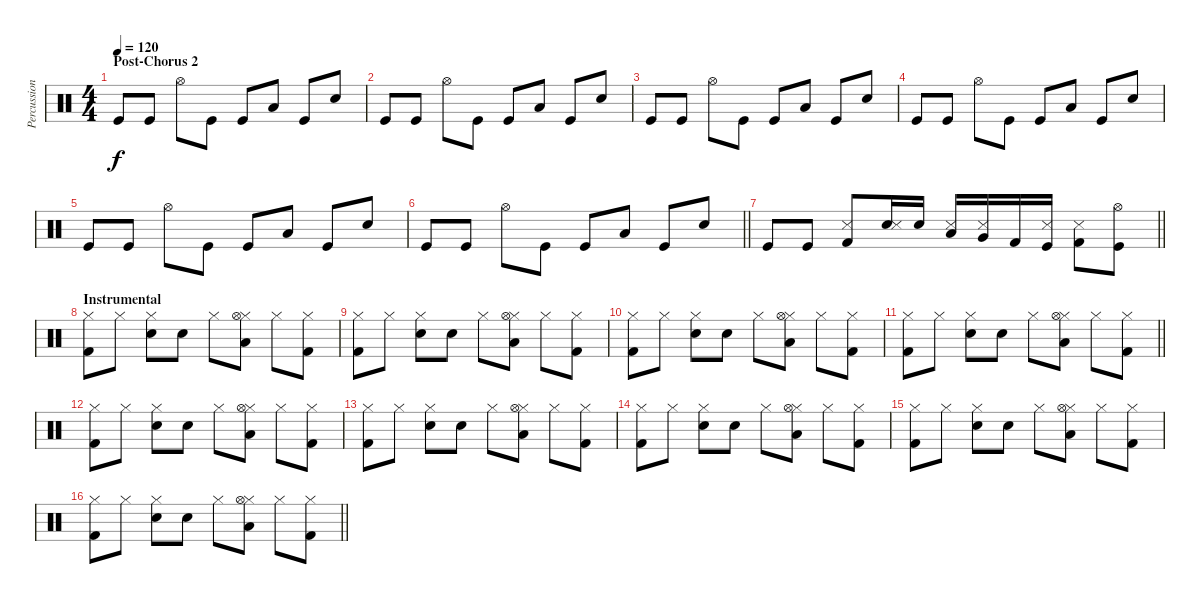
\track ("Percussion" "Percussion") {instrument percussion}
\staff {score}
\articulation defaults
\ts (4 4)
\section ("" "Post-Chorus 2")
\tempo 120
\clef neutral
\ks c "Kick (hit)".8{dy f} "Kick (hit)".8 "Hi-Hat (open)".8 "Kick (hit)".8 "Kick (hit)".8 "Low Floor Tom (hit)".8 "Kick (hit)".8 "Snare (hit) 2".8
|
"Kick (hit)".8 "Kick (hit)".8 "Hi-Hat (open)".8 "Kick (hit)".8 "Kick (hit)".8 "Low Floor Tom (hit)".8 "Kick (hit)".8 "Snare (hit) 2".8 |
"Kick (hit)".8 "Kick (hit)".8 "Hi-Hat (open)".8 "Kick (hit)".8 "Kick (hit)".8 "Low Floor Tom (hit)".8 "Kick (hit)".8 "Snare (hit) 2".8 |
"Kick (hit)".8 "Kick (hit)".8 "Hi-Hat (open)".8 "Kick (hit)".8 "Kick (hit)".8 "Low Floor Tom (hit)".8 "Kick (hit)".8 "Snare (hit) 2".8 |
"Kick (hit)".8 "Kick (hit)".8 "Hi-Hat (open)".8 "Kick (hit)".8 "Kick (hit)".8 "Low Floor Tom (hit)".8 "Kick (hit)".8 "Snare (hit) 2".8 |
\barLineRight lightlight "Kick (hit)".8 "Kick (hit)".8 "Hi-Hat (open)".8 "Kick (hit)".8 "Kick (hit)".8 "Low Floor Tom (hit)".8 "Kick (hit)".8 "Snare (hit) 2".8
|
\barLineRight lightlight "Kick (hit)".8 "Kick (hit)".8
("Kick (hit) 2" "Snare (side stick) 3").8 ("Snare (hit) 2" "Snare (side stick) 3").16 "Snare (hit) 2".16 ("Low Floor Tom (hit)" "Snare (side stick) 3").16 ("Very Low Tom (hit)" "Metronome (hit)").16 "Kick (hit) 2".16 ("Kick (hit)" "Snare (side stick) 3").16 ("Kick (hit) 2" "Snare (side stick) 3").8 ("Kick (hit)" "Hi-Hat (open)").8 |
\section ("" "Instrumental")
("Hi-Hat (closed)" "Kick (hit) 2").8 "Hi-Hat (closed)".8 ("Hi-Hat (closed)" "Snare (hit) 2").8 "Hand Clap (hit)".8 "Hi-Hat (closed)".8 ("Hi-Hat (closed)" "Low Floor Tom (hit)" "Hi-Hat (open)").8 "Hi-Hat (closed)".8 ("Hi-Hat (closed)" "Kick (hit) 2").8 |
("Hi-Hat (closed)" "Kick (hit) 2").8 "Hi-Hat (closed)".8 ("Hi-Hat (closed)" "Snare (hit) 2").8 "Hand Clap (hit)".8 "Hi-Hat (closed)".8 ("Hi-Hat (closed)" "Low Floor Tom (hit)" "Hi-Hat (open)").8 "Hi-Hat (closed)".8 ("Hi-Hat (closed)" "Kick (hit) 2").8 |
("Hi-Hat (closed)" "Kick (hit) 2").8 "Hi-Hat (closed)".8 ("Hi-Hat (closed)" "Snare (hit) 2").8 "Hand Clap (hit)".8 "Hi-Hat (closed)".8 ("Hi-Hat (closed)" "Low Floor Tom (hit)" "Hi-Hat (open)").8 "Hi-Hat (closed)".8 ("Hi-Hat (closed)" "Kick (hit) 2").8 |
\barLineRight lightlight
("Hi-Hat (closed)" "Kick (hit) 2").8 "Hi-Hat (closed)".8 ("Hi-Hat (closed)" "Snare (hit) 2").8 "Hand Clap (hit)".8 "Hi-Hat (closed)".8 ("Hi-Hat (closed)" "Low Floor Tom (hit)" "Hi-Hat (open)").8 "Hi-Hat (closed)".8 ("Hi-Hat (closed)" "Kick (hit) 2").8 |
("Hi-Hat (closed)" "Kick (hit) 2").8 "Hi-Hat (closed)".8 ("Hi-Hat (closed)" "Snare (hit) 2").8 "Hand Clap (hit)".8 "Hi-Hat (closed)".8 ("Hi-Hat (closed)" "Low Floor Tom (hit)" "Hi-Hat (open)").8 "Hi-Hat (closed)".8 ("Hi-Hat (closed)" "Kick (hit) 2").8 |
("Hi-Hat (closed)" "Kick (hit) 2").8 "Hi-Hat (closed)".8 ("Hi-Hat (closed)" "Snare (hit) 2").8 "Hand Clap (hit)".8 "Hi-Hat (closed)".8 ("Hi-Hat (closed)" "Low Floor Tom (hit)" "Hi-Hat (open)").8 "Hi-Hat (closed)".8 ("Hi-Hat (closed)" "Kick (hit) 2").8 |
("Hi-Hat (closed)" "Kick (hit) 2").8 "Hi-Hat (closed)".8 ("Hi-Hat (closed)" "Snare (hit) 2").8 "Hand Clap (hit)".8 "Hi-Hat (closed)".8 ("Hi-Hat (closed)" "Low Floor Tom (hit)" "Hi-Hat (open)").8 "Hi-Hat (closed)".8 ("Hi-Hat (closed)" "Kick (hit) 2").8 |
("Hi-Hat (closed)" "Kick (hit) 2").8 "Hi-Hat (closed)".8 ("Hi-Hat (closed)" "Snare (hit) 2").8 "Hand Clap (hit)".8 "Hi-Hat (closed)".8 ("Hi-Hat (closed)" "Low Floor Tom (hit)" "Hi-Hat (open)").8 "Hi-Hat (closed)".8 ("Hi-Hat (closed)" "Kick (hit) 2").8 |
\barLineRight lightlight
("Hi-Hat (closed)" "Kick (hit) 2").8 "Hi-Hat (closed)".8 ("Hi-Hat (closed)" "Snare (hit) 2").8 "Hand Clap (hit)".8 "Hi-Hat (closed)".8 ("Hi-Hat (closed)" "Low Floor Tom (hit)" "Hi-Hat (open)").8 "Hi-Hat (closed)".8 ("Hi-Hat (closed)" "Kick (hit) 2").8
